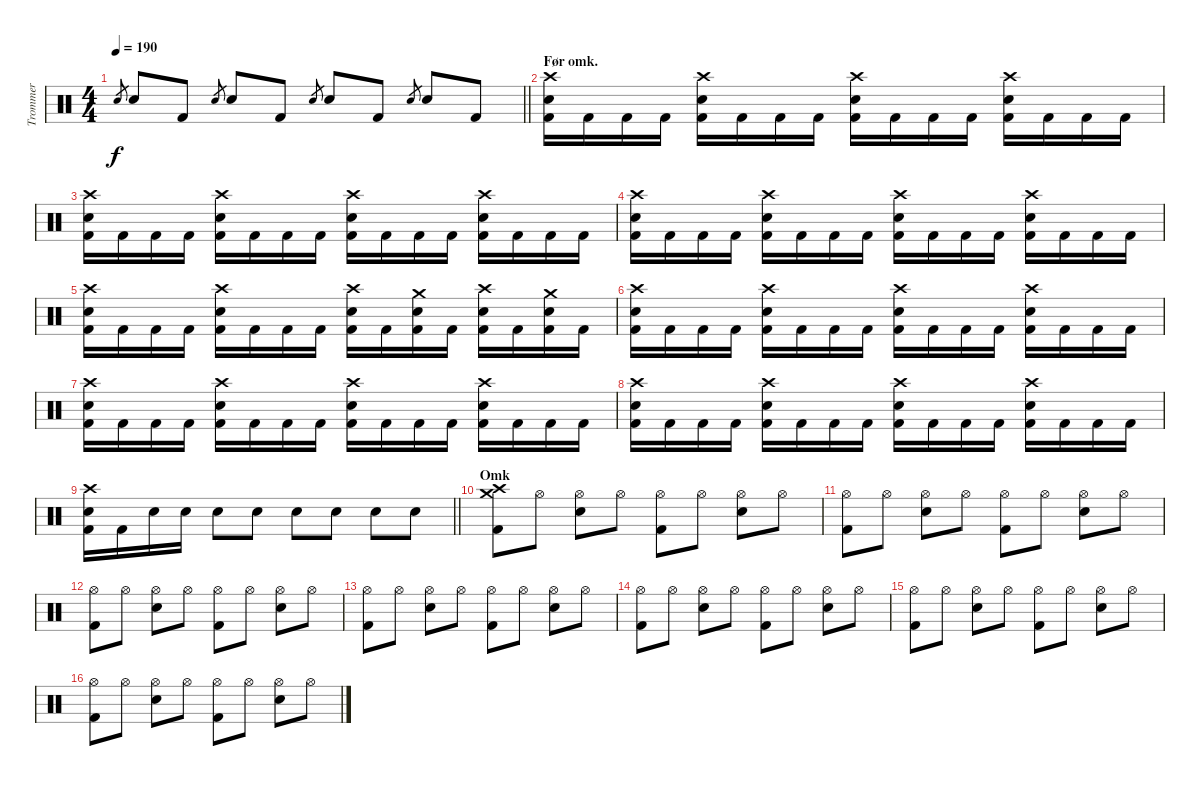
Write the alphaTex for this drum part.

\track ("Trommer" "Trommer") {instrument percussion}
\staff {score}
\articulation defaults
\ts (4 4)
\tempo 190
\clef neutral
\barLineRight lightlight
\ks c "Snare (hit) 2".8{gr dy f} "Snare (hit) 2".8 "Kick (hit) 2".8 "Snare (hit) 2".8{gr} "Snare (hit) 2".8 "Kick (hit) 2".8 "Snare (hit) 2".8{gr} "Snare (hit) 2".8 "Kick (hit) 2".8 "Snare (hit) 2".8{gr} "Snare (hit) 2".8 "Kick (hit) 2".8
|
\section ("" "Før omk.")
("Crash high (hit)" "Snare (hit) 2" "Kick (hit) 2").16 "Kick (hit) 2".16 "Kick (hit) 2".16 "Kick (hit) 2".16 ("Crash high (hit)" "Snare (hit) 2" "Kick (hit) 2").16 "Kick (hit) 2".16 "Kick (hit) 2".16 "Kick (hit) 2".16 ("Crash high (hit)" "Snare (hit) 2" "Kick (hit) 2").16 "Kick (hit) 2".16 "Kick (hit) 2".16 "Kick (hit) 2".16 ("Crash high (hit)" "Snare (hit) 2" "Kick (hit) 2").16 "Kick (hit) 2".16 "Kick (hit) 2".16 "Kick (hit) 2".16 |
("Crash high (hit)" "Snare (hit) 2" "Kick (hit) 2").16 "Kick (hit) 2".16 "Kick (hit) 2".16 "Kick (hit) 2".16 ("Crash high (hit)" "Snare (hit) 2" "Kick (hit) 2").16 "Kick (hit) 2".16 "Kick (hit) 2".16 "Kick (hit) 2".16 ("Crash high (hit)" "Snare (hit) 2" "Kick (hit) 2").16 "Kick (hit) 2".16 "Kick (hit) 2".16 "Kick (hit) 2".16 ("Crash high (hit)" "Snare (hit) 2" "Kick (hit) 2").16 "Kick (hit) 2".16 "Kick (hit) 2".16 "Kick (hit) 2".16 |
("Crash high (hit)" "Snare (hit) 2" "Kick (hit) 2").16 "Kick (hit) 2".16 "Kick (hit) 2".16 "Kick (hit) 2".16 ("Crash high (hit)" "Snare (hit) 2" "Kick (hit) 2").16 "Kick (hit) 2".16 "Kick (hit) 2".16 "Kick (hit) 2".16 ("Crash high (hit)" "Snare (hit) 2" "Kick (hit) 2").16 "Kick (hit) 2".16 "Kick (hit) 2".16 "Kick (hit) 2".16 ("Crash high (hit)" "Snare (hit) 2" "Kick (hit) 2").16 "Kick (hit) 2".16 "Kick (hit) 2".16 "Kick (hit) 2".16 |
("Crash high (hit)" "Snare (hit) 2" "Kick (hit) 2").16 "Kick (hit) 2".16 "Kick (hit) 2".16 "Kick (hit) 2".16 ("Crash high (hit)" "Snare (hit) 2" "Kick (hit) 2").16 "Kick (hit) 2".16 "Kick (hit) 2".16 "Kick (hit) 2".16 ("Crash high (hit)" "Snare (hit) 2" "Kick (hit) 2").16 "Kick (hit) 2".16 ("Crash medium (hit)" "Snare (hit) 2" "Kick (hit) 2").16 "Kick (hit) 2".16 ("Crash high (hit)" "Snare (hit) 2" "Kick (hit) 2").16 "Kick (hit) 2".16 ("Crash medium (hit)" "Snare (hit) 2" "Kick (hit) 2").16 "Kick (hit) 2".16 |
("Crash high (hit)" "Snare (hit) 2" "Kick (hit) 2").16 "Kick (hit) 2".16 "Kick (hit) 2".16 "Kick (hit) 2".16 ("Crash high (hit)" "Snare (hit) 2" "Kick (hit) 2").16 "Kick (hit) 2".16 "Kick (hit) 2".16 "Kick (hit) 2".16 ("Crash high (hit)" "Snare (hit) 2" "Kick (hit) 2").16 "Kick (hit) 2".16 "Kick (hit) 2".16 "Kick (hit) 2".16 ("Crash high (hit)" "Snare (hit) 2" "Kick (hit) 2").16 "Kick (hit) 2".16 "Kick (hit) 2".16 "Kick (hit) 2".16 |
("Crash high (hit)" "Snare (hit) 2" "Kick (hit) 2").16 "Kick (hit) 2".16 "Kick (hit) 2".16 "Kick (hit) 2".16 ("Crash high (hit)" "Snare (hit) 2" "Kick (hit) 2").16 "Kick (hit) 2".16 "Kick (hit) 2".16 "Kick (hit) 2".16 ("Crash high (hit)" "Snare (hit) 2" "Kick (hit) 2").16 "Kick (hit) 2".16 "Kick (hit) 2".16 "Kick (hit) 2".16 ("Crash high (hit)" "Snare (hit) 2" "Kick (hit) 2").16 "Kick (hit) 2".16 "Kick (hit) 2".16 "Kick (hit) 2".16 |
("Crash high (hit)" "Snare (hit) 2" "Kick (hit) 2").16 "Kick (hit) 2".16 "Kick (hit) 2".16 "Kick (hit) 2".16 ("Crash high (hit)" "Snare (hit) 2" "Kick (hit) 2").16 "Kick (hit) 2".16 "Kick (hit) 2".16 "Kick (hit) 2".16 ("Crash high (hit)" "Snare (hit) 2" "Kick (hit) 2").16 "Kick (hit) 2".16 "Kick (hit) 2".16 "Kick (hit) 2".16 ("Crash high (hit)" "Snare (hit) 2" "Kick (hit) 2").16 "Kick (hit) 2".16 "Kick (hit) 2".16 "Kick (hit) 2".16 |
\barLineRight lightlight
("Crash high (hit)" "Snare (hit) 2" "Kick (hit) 2").16 "Kick (hit) 2".16 "Snare (hit) 2".16 "Snare (hit) 2".16 "Snare (hit) 2".8 "Snare (hit) 2".8 "Snare (hit) 2".8 "Snare (hit) 2".8 "Snare (hit) 2".8 "Snare (hit) 2".8 |
\section ("" "Omk")
("Crash medium (hit)" "Crash high (hit)" "Kick (hit) 2").8 "Hi-Hat (open)".8 ("Hi-Hat (open)" "Snare (hit) 2").8 "Hi-Hat (open)".8 ("Hi-Hat (open)" "Kick (hit) 2").8 "Hi-Hat (open)".8 ("Hi-Hat (open)" "Snare (hit) 2").8 "Hi-Hat (open)".8 |
("Hi-Hat (open)" "Kick (hit) 2").8 "Hi-Hat (open)".8 ("Hi-Hat (open)" "Snare (hit) 2").8 "Hi-Hat (open)".8 ("Hi-Hat (open)" "Kick (hit) 2").8 "Hi-Hat (open)".8 ("Hi-Hat (open)" "Snare (hit) 2").8 "Hi-Hat (open)".8 |
("Hi-Hat (open)" "Kick (hit) 2").8 "Hi-Hat (open)".8 ("Hi-Hat (open)" "Snare (hit) 2").8 "Hi-Hat (open)".8 ("Hi-Hat (open)" "Kick (hit) 2").8 "Hi-Hat (open)".8 ("Hi-Hat (open)" "Snare (hit) 2").8 "Hi-Hat (open)".8 |
("Hi-Hat (open)" "Kick (hit) 2").8 "Hi-Hat (open)".8 ("Hi-Hat (open)" "Snare (hit) 2").8 "Hi-Hat (open)".8 ("Hi-Hat (open)" "Kick (hit) 2").8 "Hi-Hat (open)".8 ("Hi-Hat (open)" "Snare (hit) 2").8 "Hi-Hat (open)".8 |
("Hi-Hat (open)" "Kick (hit) 2").8 "Hi-Hat (open)".8 ("Hi-Hat (open)" "Snare (hit) 2").8 "Hi-Hat (open)".8 ("Hi-Hat (open)" "Kick (hit) 2").8 "Hi-Hat (open)".8 ("Hi-Hat (open)" "Snare (hit) 2").8 "Hi-Hat (open)".8 |
("Hi-Hat (open)" "Kick (hit) 2").8 "Hi-Hat (open)".8 ("Hi-Hat (open)" "Snare (hit) 2").8 "Hi-Hat (open)".8 ("Hi-Hat (open)" "Kick (hit) 2").8 "Hi-Hat (open)".8 ("Hi-Hat (open)" "Snare (hit) 2").8 "Hi-Hat (open)".8 |
("Hi-Hat (open)" "Kick (hit) 2").8 "Hi-Hat (open)".8 ("Hi-Hat (open)" "Snare (hit) 2").8 "Hi-Hat (open)".8 ("Hi-Hat (open)" "Kick (hit) 2").8 "Hi-Hat (open)".8 ("Hi-Hat (open)" "Snare (hit) 2").8 "Hi-Hat (open)".8
